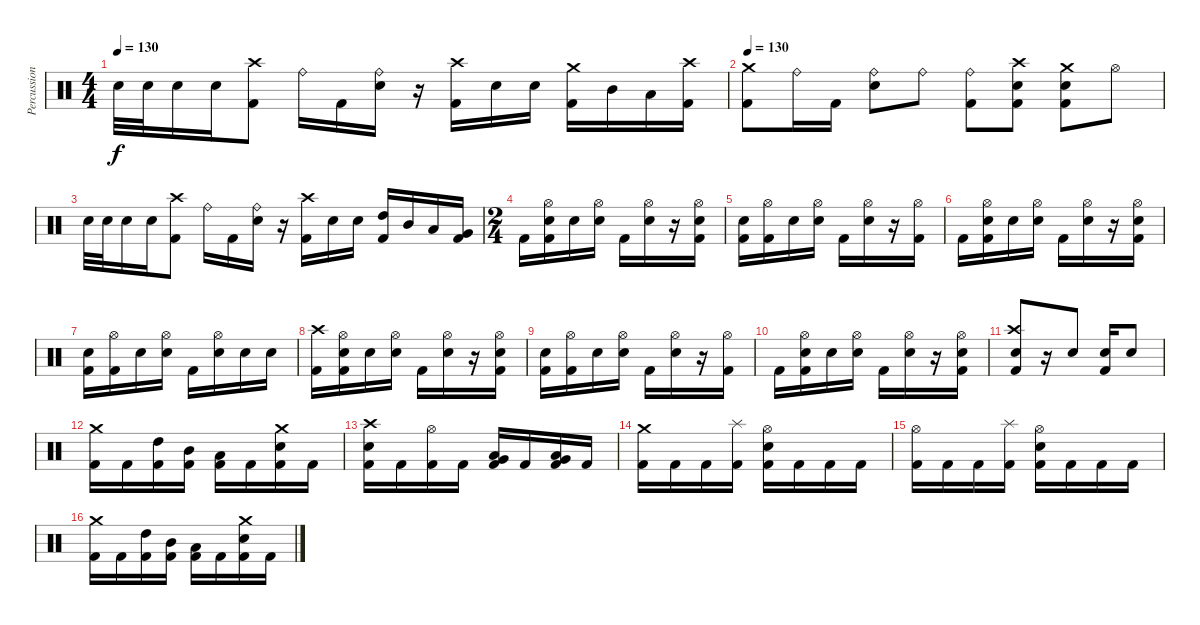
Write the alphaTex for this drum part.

\track ("Percussions" "Percussion") {instrument percussion}
\staff {score}
\articulation defaults
\ts (4 4)
\tempo 130
\clef neutral
\ks c "Electric Snare (hit)".32{dy f} "Electric Snare (hit)".32 "Electric Snare (hit)".16 "Electric Snare (hit)".16
("Crash high (hit)" "Kick (hit) 2").8 "Ride (bell)".16 "Kick (hit) 2".16 ("Ride (bell)" "Electric Snare (hit)").16 r.16 ("Crash high (hit)" "Kick (hit) 2").16 "Electric Snare (hit)".16 "Electric Snare (hit)".16 ("Crash medium (hit)" "Kick (hit) 2").16 "Mid Tom (hit)".16 "Low Tom (hit)".16 ("Crash high (hit)" "Kick (hit) 2").16 |
\tempo 130
("Crash medium (hit)" "Kick (hit) 2").8 "Ride (bell)".16 "Kick (hit) 2".16 ("Ride (bell)" "Electric Snare (hit)").8 "Ride (bell)".8 ("Ride (bell)" "Kick (hit) 2").8 ("Crash high (hit)" "Electric Snare (hit)" "Kick (hit) 2").8 ("Crash medium (hit)" "Electric Snare (hit)" "Kick (hit) 2").8 "Hi-Hat (open)".8 |
"Electric Snare (hit)".32 "Electric Snare (hit)".32 "Electric Snare (hit)".16 "Electric Snare (hit)".16 ("Crash high (hit)" "Kick (hit) 2").8 "Ride (bell)".16 "Kick (hit) 2".16 ("Ride (bell)" "Electric Snare (hit)").16 r.16 ("Crash high (hit)" "Kick (hit) 2").16 "Electric Snare (hit)".16 "Electric Snare (hit)".16 ("High Tom (hit)" "Kick (hit) 2").16 "Mid Tom (hit)".16 "Low Tom (hit)".16 ("Very Low Tom (hit)" "Kick (hit) 2").16 |
\ts (2 4)
"Kick (hit) 2".16 ("Hi-Hat (open)" "Electric Snare (hit)" "Kick (hit) 2").16 "Electric Snare (hit)".16 ("Hi-Hat (open)" "Electric Snare (hit)").16 "Kick (hit) 2".16 ("Hi-Hat (open)" "Electric Snare (hit)").16 r.16 ("Hi-Hat (open)" "Electric Snare (hit)" "Kick (hit) 2").16 |
("Electric Snare (hit)" "Kick (hit) 2").16 ("Hi-Hat (open)" "Kick (hit) 2").16 "Electric Snare (hit)".16 ("Hi-Hat (open)" "Electric Snare (hit)").16 "Kick (hit) 2".16 ("Hi-Hat (open)" "Electric Snare (hit)").16 r.16 ("Hi-Hat (open)" "Kick (hit) 2").16 |
"Kick (hit) 2".16 ("Hi-Hat (open)" "Electric Snare (hit)" "Kick (hit) 2").16 "Electric Snare (hit)".16 ("Hi-Hat (open)" "Electric Snare (hit)").16 "Kick (hit) 2".16 ("Hi-Hat (open)" "Electric Snare (hit)").16 r.16 ("Hi-Hat (open)" "Electric Snare (hit)" "Kick (hit) 2").16 |
("Electric Snare (hit)" "Kick (hit) 2").16 ("Hi-Hat (open)" "Kick (hit) 2").16 "Electric Snare (hit)".16 ("Hi-Hat (open)" "Electric Snare (hit)").16 "Kick (hit) 2".16 ("Hi-Hat (open)" "Electric Snare (hit)").16 "Electric Snare (hit)".16 "Electric Snare (hit)".16 |
("Crash high (hit)" "Kick (hit) 2").16 ("Hi-Hat (open)" "Electric Snare (hit)" "Kick (hit) 2").16 "Electric Snare (hit)".16 ("Hi-Hat (open)" "Electric Snare (hit)").16 "Kick (hit) 2".16 ("Hi-Hat (open)" "Electric Snare (hit)").16 r.16 ("Hi-Hat (open)" "Electric Snare (hit)" "Kick (hit) 2").16 |
("Electric Snare (hit)" "Kick (hit) 2").16 ("Hi-Hat (open)" "Kick (hit) 2").16 "Electric Snare (hit)".16 ("Hi-Hat (open)" "Electric Snare (hit)").16 "Kick (hit) 2".16 ("Hi-Hat (open)" "Electric Snare (hit)").16 r.16 ("Hi-Hat (open)" "Kick (hit) 2").16 |
"Kick (hit) 2".16 ("Hi-Hat (open)" "Electric Snare (hit)" "Kick (hit) 2").16 "Electric Snare (hit)".16 ("Hi-Hat (open)" "Electric Snare (hit)").16 "Kick (hit) 2".16 ("Hi-Hat (open)" "Electric Snare (hit)").16 r.16 ("Hi-Hat (open)" "Electric Snare (hit)" "Kick (hit) 2").16 |
("Crash high (hit)" "Electric Snare (hit)" "Kick (hit) 2").8 r.16 "Electric Snare (hit)".8 ("Electric Snare (hit)" "Kick (hit) 2").16 "Electric Snare (hit)".8 |
("Crash medium (hit)" "Kick (hit) 2").16 "Kick (hit) 2".16 ("High Tom (hit)" "Kick (hit) 2").16 ("Mid Tom (hit)" "Kick (hit) 2").16 ("Low Tom (hit)" "Kick (hit) 2").16 "Kick (hit) 2".16 ("Crash medium (hit)" "Electric Snare (hit)" "Kick (hit) 2").16 "Kick (hit) 2".16 |
("Crash high (hit)" "Electric Snare (hit)" "Kick (hit) 2").16 "Kick (hit) 2".16 ("Hi-Hat (open)" "Kick (hit) 2").16 "Kick (hit) 2".16 ("Low Tom (hit)" "Very Low Tom (hit)" "Kick (hit) 2").16 "Kick (hit) 2".16 ("Low Tom (hit)" "Very Low Tom (hit)" "Kick (hit) 2").16 "Kick (hit) 2".16 |
("Crash medium (hit)" "Kick (hit) 2").16 "Kick (hit) 2".16 "Kick (hit) 2".16 ("Splash (hit)" "Kick (hit) 2").16 ("Hi-Hat (open)" "Electric Snare (hit)" "Kick (hit) 2").16 "Kick (hit) 2".16 "Kick (hit) 2".16 "Kick (hit) 2".16 |
("Hi-Hat (open)" "Kick (hit) 2").16 "Kick (hit) 2".16 "Kick (hit) 2".16 ("Splash (hit)" "Kick (hit) 2").16 ("Hi-Hat (open)" "Electric Snare (hit)" "Kick (hit) 2").16 "Kick (hit) 2".16 "Kick (hit) 2".16 "Kick (hit) 2".16 |
("Crash medium (hit)" "Kick (hit) 2").16 "Kick (hit) 2".16 ("High Tom (hit)" "Kick (hit) 2").16 ("Mid Tom (hit)" "Kick (hit) 2").16 ("Low Tom (hit)" "Kick (hit) 2").16 "Kick (hit) 2".16 ("Crash medium (hit)" "Electric Snare (hit)" "Kick (hit) 2").16 "Kick (hit) 2".16
